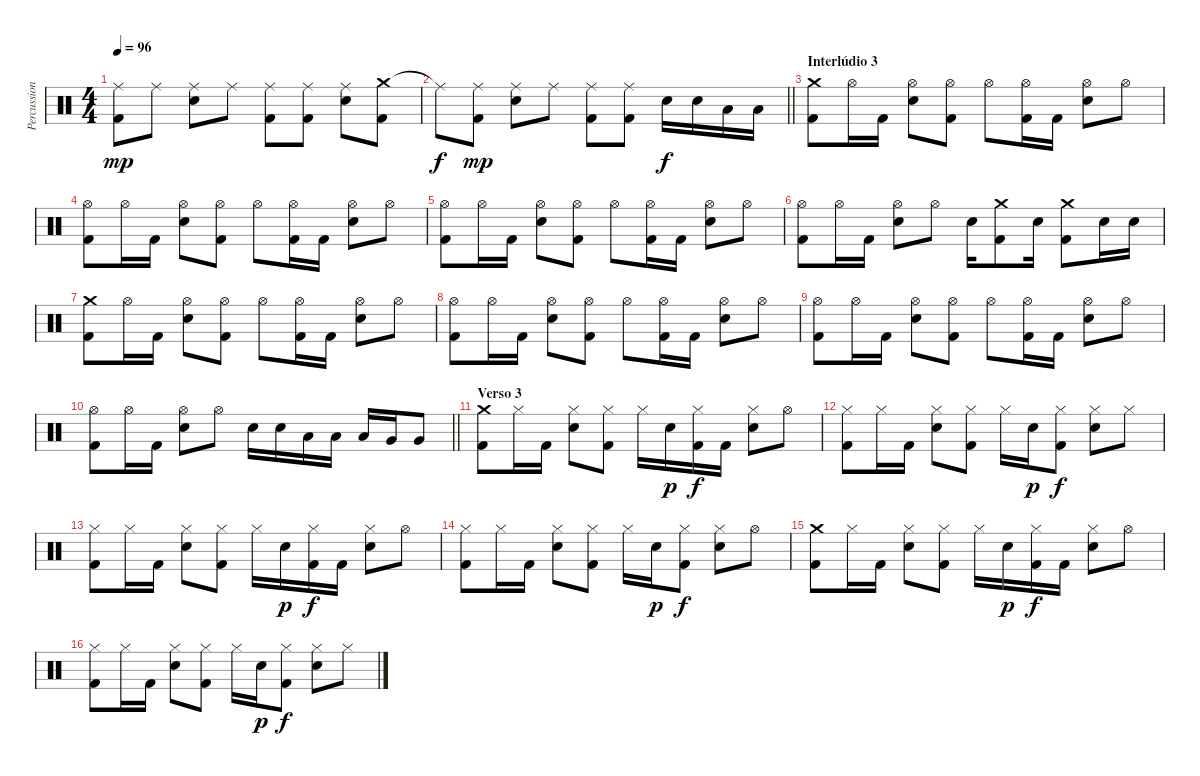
\track ("Percussion" "Percussion") {instrument percussion}
\staff {score}
\articulation defaults
\ts (4 4)
\tempo 96
\clef neutral
\ks c
("Ride (middle)" "Kick (hit) 2").8{dy mp} "Ride (middle)".8 ("Ride (middle)" "Electric Snare (hit)").8 "Ride (middle)".8 ("Ride (middle)" "Kick (hit) 2").8 ("Ride (middle)" "Kick (hit) 2").8 ("Ride (middle)" "Electric Snare (hit)").8 ("Crash medium (hit)" "Kick (hit) 2").8 |
\barLineRight lightlight "Ride (middle)"{t}.8{dy f}
("Ride (middle)" "Kick (hit) 2").8{dy mp} ("Ride (middle)" "Electric Snare (hit)").8 "Ride (middle)".8 ("Ride (middle)" "Kick (hit) 2").8 ("Ride (middle)" "Kick (hit) 2").8 "Electric Snare (hit)".16{dy f} "Electric Snare (hit)".16 "Low Tom (hit)".16 "Low Tom (hit)".16 |
\section ("" "Interlúdio 3")
("Crash medium (hit)" "Kick (hit) 2").8 "Hi-Hat (open)".16 "Kick (hit) 2".16 ("Hi-Hat (open)" "Electric Snare (hit)").8 ("Hi-Hat (open)" "Kick (hit) 2").8 "Hi-Hat (open)".8 ("Hi-Hat (open)" "Kick (hit) 2").16 "Kick (hit) 2".16 ("Hi-Hat (open)" "Electric Snare (hit)").8 "Hi-Hat (open)".8 |
("Hi-Hat (open)" "Kick (hit) 2").8 "Hi-Hat (open)".16 "Kick (hit) 2".16 ("Hi-Hat (open)" "Electric Snare (hit)").8 ("Hi-Hat (open)" "Kick (hit) 2").8 "Hi-Hat (open)".8 ("Hi-Hat (open)" "Kick (hit) 2").16 "Kick (hit) 2".16 ("Hi-Hat (open)" "Electric Snare (hit)").8 "Hi-Hat (open)".8 |
("Hi-Hat (open)" "Kick (hit) 2").8 "Hi-Hat (open)".16 "Kick (hit) 2".16 ("Hi-Hat (open)" "Electric Snare (hit)").8 ("Hi-Hat (open)" "Kick (hit) 2").8 "Hi-Hat (open)".8 ("Hi-Hat (open)" "Kick (hit) 2").16 "Kick (hit) 2".16 ("Hi-Hat (open)" "Electric Snare (hit)").8 "Hi-Hat (open)".8 |
("Hi-Hat (open)" "Kick (hit) 2").8 "Hi-Hat (open)".16 "Kick (hit) 2".16 ("Hi-Hat (open)" "Electric Snare (hit)").8 "Hi-Hat (open)".8 "Electric Snare (hit)".16 ("Crash medium (hit)" "Kick (hit) 2").8 "Electric Snare (hit)".16 ("Crash medium (hit)" "Kick (hit) 2").8 "Electric Snare (hit)".16 "Electric Snare (hit)".16 |
("Crash medium (hit)" "Kick (hit) 2").8 "Hi-Hat (open)".16 "Kick (hit) 2".16 ("Hi-Hat (open)" "Electric Snare (hit)").8 ("Hi-Hat (open)" "Kick (hit) 2").8 "Hi-Hat (open)".8 ("Hi-Hat (open)" "Kick (hit) 2").16 "Kick (hit) 2".16 ("Hi-Hat (open)" "Electric Snare (hit)").8 "Hi-Hat (open)".8 |
("Hi-Hat (open)" "Kick (hit) 2").8 "Hi-Hat (open)".16 "Kick (hit) 2".16 ("Hi-Hat (open)" "Electric Snare (hit)").8 ("Hi-Hat (open)" "Kick (hit) 2").8 "Hi-Hat (open)".8 ("Hi-Hat (open)" "Kick (hit) 2").16 "Kick (hit) 2".16 ("Hi-Hat (open)" "Electric Snare (hit)").8 "Hi-Hat (open)".8 |
("Hi-Hat (open)" "Kick (hit) 2").8 "Hi-Hat (open)".16 "Kick (hit) 2".16 ("Hi-Hat (open)" "Electric Snare (hit)").8 ("Hi-Hat (open)" "Kick (hit) 2").8 "Hi-Hat (open)".8 ("Hi-Hat (open)" "Kick (hit) 2").16 "Kick (hit) 2".16 ("Hi-Hat (open)" "Electric Snare (hit)").8 "Hi-Hat (open)".8 |
\barLineRight lightlight
("Hi-Hat (open)" "Kick (hit) 2").8 "Hi-Hat (open)".16 "Kick (hit) 2".16 ("Hi-Hat (open)" "Electric Snare (hit)").8 "Hi-Hat (open)".8 "Electric Snare (hit)".16 "Electric Snare (hit)".16 "Low Tom (hit)".16 "Low Tom (hit)".16 "Low Tom (hit)".16 "Very Low Tom (hit)".16 "Very Low Tom (hit)".8 |
\section ("" "Verso 3")
("Crash medium (hit)" "Kick (hit) 2").8 "Hi-Hat (closed)".16 "Kick (hit) 2".16 ("Hi-Hat (closed)" "Electric Snare (hit)").8 ("Hi-Hat (closed)" "Kick (hit) 2").8 "Hi-Hat (closed)".16 "Electric Snare (hit)".16{dy p} ("Hi-Hat (closed)" "Kick (hit) 2").16{dy f} "Kick (hit) 2".16 ("Hi-Hat (closed)" "Electric Snare (hit)").8 "Hi-Hat (open)".8 |
("Hi-Hat (closed)" "Kick (hit) 2").8 "Hi-Hat (closed)".16 "Kick (hit) 2".16 ("Hi-Hat (closed)" "Electric Snare (hit)").8 ("Hi-Hat (closed)" "Kick (hit) 2").8 "Hi-Hat (closed)".16 "Electric Snare (hit)".16{dy p} ("Hi-Hat (closed)" "Kick (hit) 2").8{dy f} ("Hi-Hat (closed)" "Electric Snare (hit)").8 "Hi-Hat (closed)".8 |
("Hi-Hat (closed)" "Kick (hit) 2").8 "Hi-Hat (closed)".16 "Kick (hit) 2".16 ("Hi-Hat (closed)" "Electric Snare (hit)").8 ("Hi-Hat (closed)" "Kick (hit) 2").8 "Hi-Hat (closed)".16 "Electric Snare (hit)".16{dy p} ("Hi-Hat (closed)" "Kick (hit) 2").16{dy f} "Kick (hit) 2".16 ("Hi-Hat (closed)" "Electric Snare (hit)").8 "Hi-Hat (open)".8 |
("Hi-Hat (closed)" "Kick (hit) 2").8 "Hi-Hat (closed)".16 "Kick (hit) 2".16 ("Hi-Hat (closed)" "Electric Snare (hit)").8 ("Hi-Hat (closed)" "Kick (hit) 2").8 "Hi-Hat (closed)".16 "Electric Snare (hit)".16{dy p} ("Hi-Hat (closed)" "Kick (hit) 2").8{dy f} ("Hi-Hat (closed)" "Electric Snare (hit)").8 "Hi-Hat (open)".8 |
("Crash medium (hit)" "Kick (hit) 2").8 "Hi-Hat (closed)".16 "Kick (hit) 2".16 ("Hi-Hat (closed)" "Electric Snare (hit)").8 ("Hi-Hat (closed)" "Kick (hit) 2").8 "Hi-Hat (closed)".16 "Electric Snare (hit)".16{dy p} ("Hi-Hat (closed)" "Kick (hit) 2").16{dy f} "Kick (hit) 2".16 ("Hi-Hat (closed)" "Electric Snare (hit)").8 "Hi-Hat (open)".8 |
("Hi-Hat (closed)" "Kick (hit) 2").8 "Hi-Hat (closed)".16 "Kick (hit) 2".16 ("Hi-Hat (closed)" "Electric Snare (hit)").8 ("Hi-Hat (closed)" "Kick (hit) 2").8 "Hi-Hat (closed)".16 "Electric Snare (hit)".16{dy p} ("Hi-Hat (closed)" "Kick (hit) 2").8{dy f} ("Hi-Hat (closed)" "Electric Snare (hit)").8 "Hi-Hat (closed)".8
